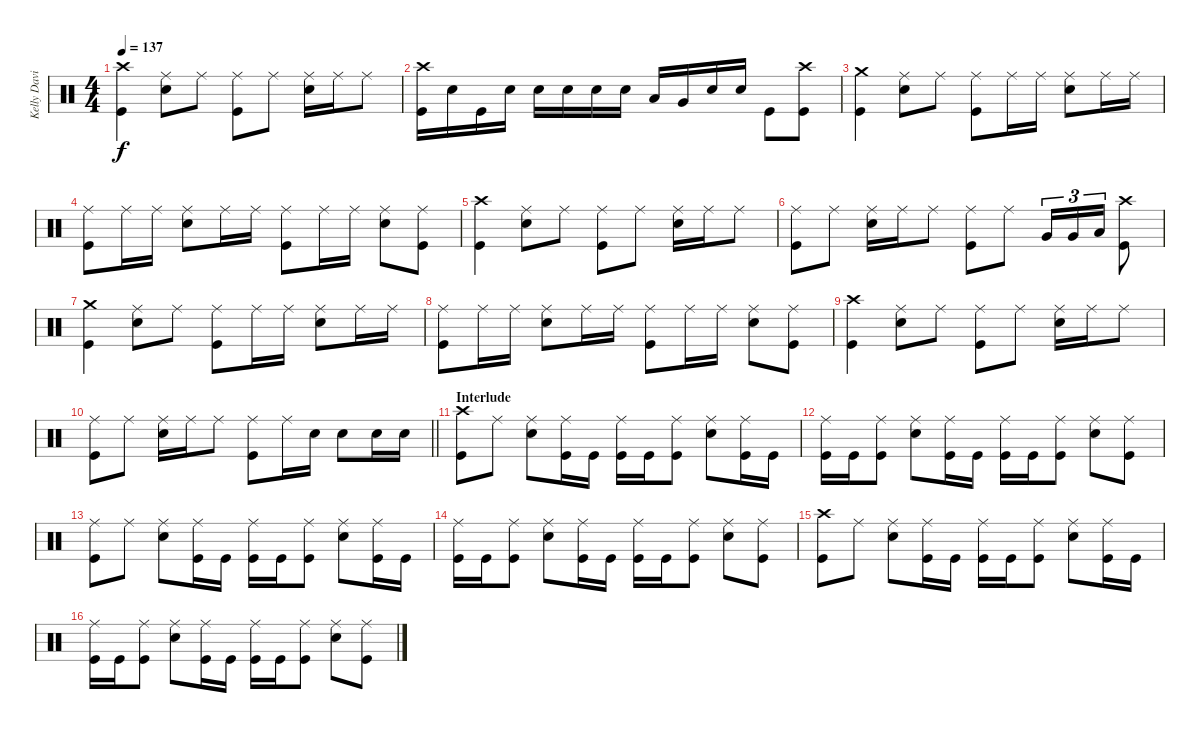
\track ("Kelly David Smith" "Kelly Davi") {instrument percussion}
\staff {score}
\articulation defaults
\ts (4 4)
\tempo 137
\clef neutral
\ks c
("Crash high (hit)" "Kick (hit)").4{dy f} ("Ride (middle)" "Electric Snare (hit)").8 "Ride (middle)".8 ("Ride (middle)" "Kick (hit)").8 "Ride (middle)".8 ("Ride (middle)" "Electric Snare (hit)").16 "Ride (middle)".16 "Ride (middle)".8 |
("Crash high (hit)" "Kick (hit)").16 "Electric Snare (hit)".16 "Kick (hit)".16 "Electric Snare (hit)".16 "Electric Snare (hit)".16 "Electric Snare (hit)".16 "Electric Snare (hit)".16 "Electric Snare (hit)".16 "Low Tom (hit)".16 "Very Low Tom (hit)".16 "Electric Snare (hit)".16 "Electric Snare (hit)".16 "Kick (hit)".8 ("Crash high (hit)" "Kick (hit)").8 |
("Crash medium (hit)" "Kick (hit)").4 ("Ride (middle)" "Electric Snare (hit)").8 "Ride (middle)".8 ("Ride (middle)" "Kick (hit)").8 "Ride (middle)".16 "Ride (middle)".16 ("Ride (middle)" "Electric Snare (hit)").8 "Ride (middle)".16 "Ride (middle)".16 |
("Ride (middle)" "Kick (hit)").8 "Ride (middle)".16 "Ride (middle)".16 ("Ride (middle)" "Electric Snare (hit)").8 "Ride (middle)".16 "Ride (middle)".16 ("Ride (middle)" "Kick (hit)").8 "Ride (middle)".16 "Ride (middle)".16 ("Ride (middle)" "Electric Snare (hit)").8 ("Ride (middle)" "Kick (hit)").8 |
("Crash high (hit)" "Kick (hit)").4 ("Ride (middle)" "Electric Snare (hit)").8 "Ride (middle)".8 ("Ride (middle)" "Kick (hit)").8 "Ride (middle)".8 ("Ride (middle)" "Electric Snare (hit)").16 "Ride (middle)".16 "Ride (middle)".8 |
("Ride (middle)" "Kick (hit)").8 "Ride (middle)".8 ("Ride (middle)" "Electric Snare (hit)").16 "Ride (middle)".16 "Ride (middle)".8 ("Ride (middle)" "Kick (hit)").8 "Ride (middle)".8 "Very Low Tom (hit)".16{tu (3 2)} "Very Low Tom (hit)".16{tu (3 2)} "Low Floor Tom (hit)".16{tu (3 2)} ("Crash high (hit)" "Kick (hit)").8 |
("Crash medium (hit)" "Kick (hit)").4 ("Ride (middle)" "Electric Snare (hit)").8 "Ride (middle)".8 ("Ride (middle)" "Kick (hit)").8 "Ride (middle)".16 "Ride (middle)".16 ("Ride (middle)" "Electric Snare (hit)").8 "Ride (middle)".16 "Ride (middle)".16 |
("Ride (middle)" "Kick (hit)").8 "Ride (middle)".16 "Ride (middle)".16 ("Ride (middle)" "Electric Snare (hit)").8 "Ride (middle)".16 "Ride (middle)".16 ("Ride (middle)" "Kick (hit)").8 "Ride (middle)".16 "Ride (middle)".16 ("Ride (middle)" "Electric Snare (hit)").8 ("Ride (middle)" "Kick (hit)").8 |
("Crash high (hit)" "Kick (hit)").4 ("Ride (middle)" "Electric Snare (hit)").8 "Ride (middle)".8 ("Ride (middle)" "Kick (hit)").8 "Ride (middle)".8 ("Ride (middle)" "Electric Snare (hit)").16 "Ride (middle)".16 "Ride (middle)".8 |
\barLineRight lightlight
("Ride (middle)" "Kick (hit)").8 "Ride (middle)".8 ("Ride (middle)" "Electric Snare (hit)").16 "Ride (middle)".16 "Ride (middle)".8 ("Ride (middle)" "Kick (hit)").8 "Ride (middle)".16 "Electric Snare (hit)".16 "Electric Snare (hit)".8 "Electric Snare (hit)".16 "Electric Snare (hit)".16 |
\section ("" "Interlude")
("Crash high (hit)" "Kick (hit)").8 "Ride (middle)".8 ("Ride (middle)" "Electric Snare (hit)").8 ("Ride (middle)" "Kick (hit)").16 "Kick (hit)".16 ("Ride (middle)" "Kick (hit)").16 "Kick (hit)".16 ("Ride (middle)" "Kick (hit)").8 ("Ride (middle)" "Electric Snare (hit)").8 ("Ride (middle)" "Kick (hit)").16 "Kick (hit)".16 |
("Ride (middle)" "Kick (hit)").16 "Kick (hit)".16 ("Ride (middle)" "Kick (hit)").8 ("Ride (middle)" "Electric Snare (hit)").8 ("Ride (middle)" "Kick (hit)").16 "Kick (hit)".16 ("Ride (middle)" "Kick (hit)").16 "Kick (hit)".16 ("Ride (middle)" "Kick (hit)").8 ("Ride (middle)" "Electric Snare (hit)").8 ("Ride (middle)" "Kick (hit)").8 |
("Ride (middle)" "Kick (hit)").8 "Ride (middle)".8 ("Ride (middle)" "Electric Snare (hit)").8 ("Ride (middle)" "Kick (hit)").16 "Kick (hit)".16 ("Ride (middle)" "Kick (hit)").16 "Kick (hit)".16 ("Ride (middle)" "Kick (hit)").8 ("Ride (middle)" "Electric Snare (hit)").8 ("Ride (middle)" "Kick (hit)").16 "Kick (hit)".16 |
("Ride (middle)" "Kick (hit)").16 "Kick (hit)".16 ("Ride (middle)" "Kick (hit)").8 ("Ride (middle)" "Electric Snare (hit)").8 ("Ride (middle)" "Kick (hit)").16 "Kick (hit)".16 ("Ride (middle)" "Kick (hit)").16 "Kick (hit)".16 ("Ride (middle)" "Kick (hit)").8 ("Ride (middle)" "Electric Snare (hit)").8 ("Ride (middle)" "Kick (hit)").8 |
("Crash high (hit)" "Kick (hit)").8 "Ride (middle)".8 ("Ride (middle)" "Electric Snare (hit)").8 ("Ride (middle)" "Kick (hit)").16 "Kick (hit)".16 ("Ride (middle)" "Kick (hit)").16 "Kick (hit)".16 ("Ride (middle)" "Kick (hit)").8 ("Ride (middle)" "Electric Snare (hit)").8 ("Ride (middle)" "Kick (hit)").16 "Kick (hit)".16 |
("Ride (middle)" "Kick (hit)").16 "Kick (hit)".16 ("Ride (middle)" "Kick (hit)").8 ("Ride (middle)" "Electric Snare (hit)").8 ("Ride (middle)" "Kick (hit)").16 "Kick (hit)".16 ("Ride (middle)" "Kick (hit)").16 "Kick (hit)".16 ("Ride (middle)" "Kick (hit)").8 ("Ride (middle)" "Electric Snare (hit)").8 ("Ride (middle)" "Kick (hit)").8
